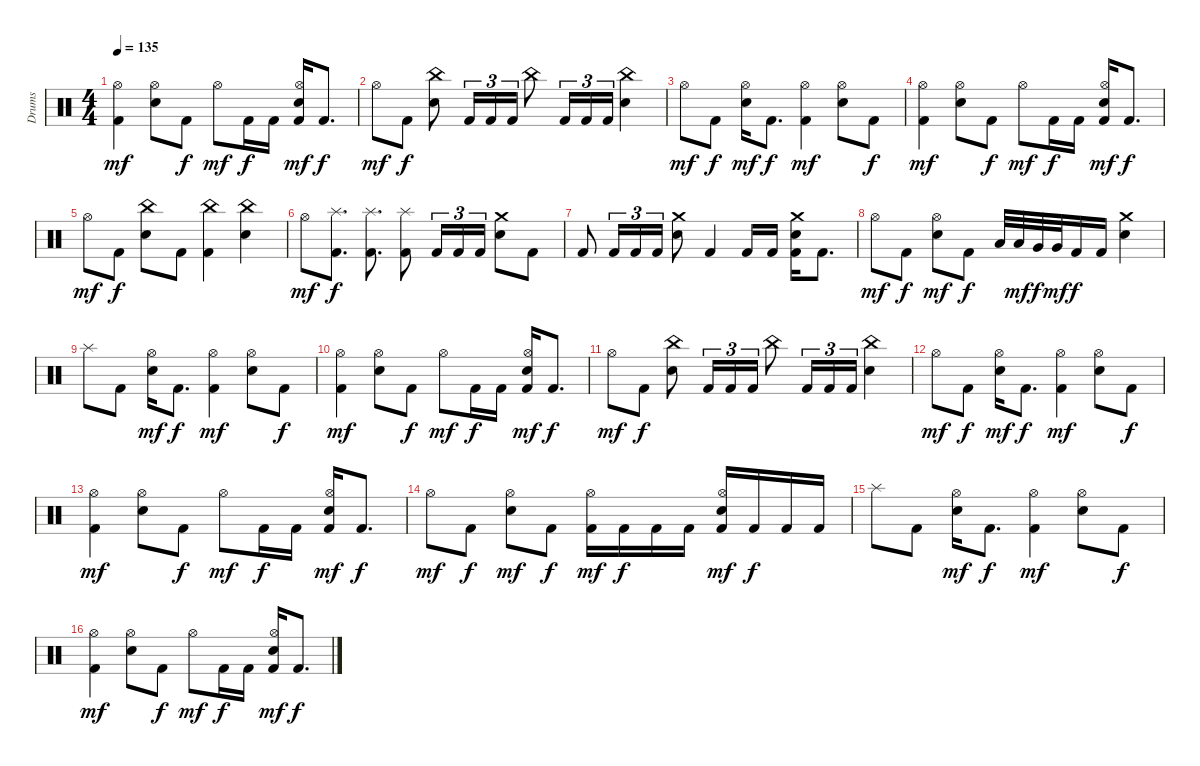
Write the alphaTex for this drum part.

\track ("Drums" "Drums") {instrument percussion}
\staff {score}
\articulation defaults
\ts (4 4)
\tempo 135
\clef neutral
\ks c
("Kick (hit) 2" "Hi-Hat (open)").4{dy mf} ("Hi-Hat (open)" "Electric Snare (hit)").8 "Kick (hit) 2".8{dy f} "Hi-Hat (open)".8{dy mf} "Kick (hit) 2".16{dy f} "Kick (hit) 2".16 ("Kick (hit) 2" "Hi-Hat (open)" "Electric Snare (hit)").16{dy mf} "Kick (hit) 2".8{d dy f} |
"Hi-Hat (open)".8{dy mf} "Kick (hit) 2".8{dy f} ("China (hit)" "Electric Snare (hit)").8 "Kick (hit) 2".16{tu (3 2)} "Kick (hit) 2".16{tu (3 2)} "Kick (hit) 2".16{tu (3 2)} "China (hit)".8 "Kick (hit) 2".16{tu (3 2)} "Kick (hit) 2".16{tu (3 2)} "Kick (hit) 2".16{tu (3 2)} ("China (hit)" "Electric Snare (hit)").4 |
"Hi-Hat (open)".8{dy mf} "Kick (hit) 2".8{dy f} ("Hi-Hat (open)" "Electric Snare (hit)").16{dy mf} "Kick (hit) 2".8{d dy f} ("Kick (hit) 2" "Hi-Hat (open)").4{dy mf} ("Hi-Hat (open)" "Electric Snare (hit)").8 "Kick (hit) 2".8{dy f} |
("Kick (hit) 2" "Hi-Hat (open)").4{dy mf} ("Hi-Hat (open)" "Electric Snare (hit)").8 "Kick (hit) 2".8{dy f} "Hi-Hat (open)".8{dy mf} "Kick (hit) 2".16{dy f} "Kick (hit) 2".16 ("Kick (hit) 2" "Hi-Hat (open)" "Electric Snare (hit)").16{dy mf} "Kick (hit) 2".8{d dy f} |
"Hi-Hat (open)".8{dy mf} "Kick (hit) 2".8{dy f} ("China (hit)" "Electric Snare (hit)").8 "Kick (hit) 2".8 ("Kick (hit) 2" "China (hit)").4 ("China (hit)" "Electric Snare (hit)").4 |
"Hi-Hat (open)".8{dy mf} ("Kick (hit) 2" "Splash (hit)").8{d dy f} ("Kick (hit) 2" "Splash (hit)").8{d} ("Kick (hit) 2" "Splash (hit)").8 "Kick (hit) 2".16{tu (3 2)} "Kick (hit) 2".16{tu (3 2)} "Kick (hit) 2".16{tu (3 2)} ("Crash medium (hit)" "Electric Snare (hit)").8 "Kick (hit) 2".8 |
"Kick (hit) 2".8 "Kick (hit) 2".16{tu (3 2)} "Kick (hit) 2".16{tu (3 2)} "Kick (hit) 2".16{tu (3 2)} ("Crash medium (hit)" "Electric Snare (hit)").8 "Kick (hit) 2".4 "Kick (hit) 2".16 "Kick (hit) 2".16 ("Kick (hit) 2" "Crash medium (hit)" "Electric Snare (hit)").16 "Kick (hit) 2".8{d} |
"Hi-Hat (open)".8{dy mf} "Kick (hit) 2".8{dy f} ("Hi-Hat (open)" "Electric Snare (hit)").8{dy mf} "Kick (hit) 2".8{dy f} "Low Tom (hit)".32 "Low Tom (hit)".32{dy mf} "Very Low Tom (hit)".32{dy f} "Very Low Tom (hit)".32{dy mf} "Kick (hit) 2".16{dy f} "Kick (hit) 2".16 ("Crash medium (hit)" "Electric Snare (hit)").4 |
"Splash (hit)".8 "Kick (hit) 2".8 ("Hi-Hat (open)" "Electric Snare (hit)").16{dy mf} "Kick (hit) 2".8{d dy f} ("Kick (hit) 2" "Hi-Hat (open)").4{dy mf} ("Hi-Hat (open)" "Electric Snare (hit)").8 "Kick (hit) 2".8{dy f} |
("Kick (hit) 2" "Hi-Hat (open)").4{dy mf} ("Hi-Hat (open)" "Electric Snare (hit)").8 "Kick (hit) 2".8{dy f} "Hi-Hat (open)".8{dy mf} "Kick (hit) 2".16{dy f} "Kick (hit) 2".16 ("Kick (hit) 2" "Hi-Hat (open)" "Electric Snare (hit)").16{dy mf} "Kick (hit) 2".8{d dy f} |
"Hi-Hat (open)".8{dy mf} "Kick (hit) 2".8{dy f} ("China (hit)" "Electric Snare (hit)").8 "Kick (hit) 2".16{tu (3 2)} "Kick (hit) 2".16{tu (3 2)} "Kick (hit) 2".16{tu (3 2)} "China (hit)".8 "Kick (hit) 2".16{tu (3 2)} "Kick (hit) 2".16{tu (3 2)} "Kick (hit) 2".16{tu (3 2)} ("China (hit)" "Electric Snare (hit)").4 |
"Hi-Hat (open)".8{dy mf} "Kick (hit) 2".8{dy f} ("Hi-Hat (open)" "Electric Snare (hit)").16{dy mf} "Kick (hit) 2".8{d dy f} ("Kick (hit) 2" "Hi-Hat (open)").4{dy mf} ("Hi-Hat (open)" "Electric Snare (hit)").8 "Kick (hit) 2".8{dy f} |
("Kick (hit) 2" "Hi-Hat (open)").4{dy mf} ("Hi-Hat (open)" "Electric Snare (hit)").8 "Kick (hit) 2".8{dy f} "Hi-Hat (open)".8{dy mf} "Kick (hit) 2".16{dy f} "Kick (hit) 2".16 ("Kick (hit) 2" "Hi-Hat (open)" "Electric Snare (hit)").16{dy mf} "Kick (hit) 2".8{d dy f} |
"Hi-Hat (open)".8{dy mf} "Kick (hit) 2".8{dy f} ("Hi-Hat (open)" "Electric Snare (hit)").8{dy mf} "Kick (hit) 2".8{dy f} ("Kick (hit) 2" "Hi-Hat (open)").16{dy mf} "Kick (hit) 2".16{dy f} "Kick (hit) 2".16 "Kick (hit) 2".16 ("Kick (hit) 2" "Hi-Hat (open)" "Electric Snare (hit)").16{dy mf} "Kick (hit) 2".16{dy f} "Kick (hit) 2".16 "Kick (hit) 2".16 |
"Splash (hit)".8 "Kick (hit) 2".8 ("Hi-Hat (open)" "Electric Snare (hit)").16{dy mf} "Kick (hit) 2".8{d dy f} ("Kick (hit) 2" "Hi-Hat (open)").4{dy mf} ("Hi-Hat (open)" "Electric Snare (hit)").8 "Kick (hit) 2".8{dy f} |
("Kick (hit) 2" "Hi-Hat (open)").4{dy mf} ("Hi-Hat (open)" "Electric Snare (hit)").8 "Kick (hit) 2".8{dy f} "Hi-Hat (open)".8{dy mf} "Kick (hit) 2".16{dy f} "Kick (hit) 2".16 ("Kick (hit) 2" "Hi-Hat (open)" "Electric Snare (hit)").16{dy mf} "Kick (hit) 2".8{d dy f}
